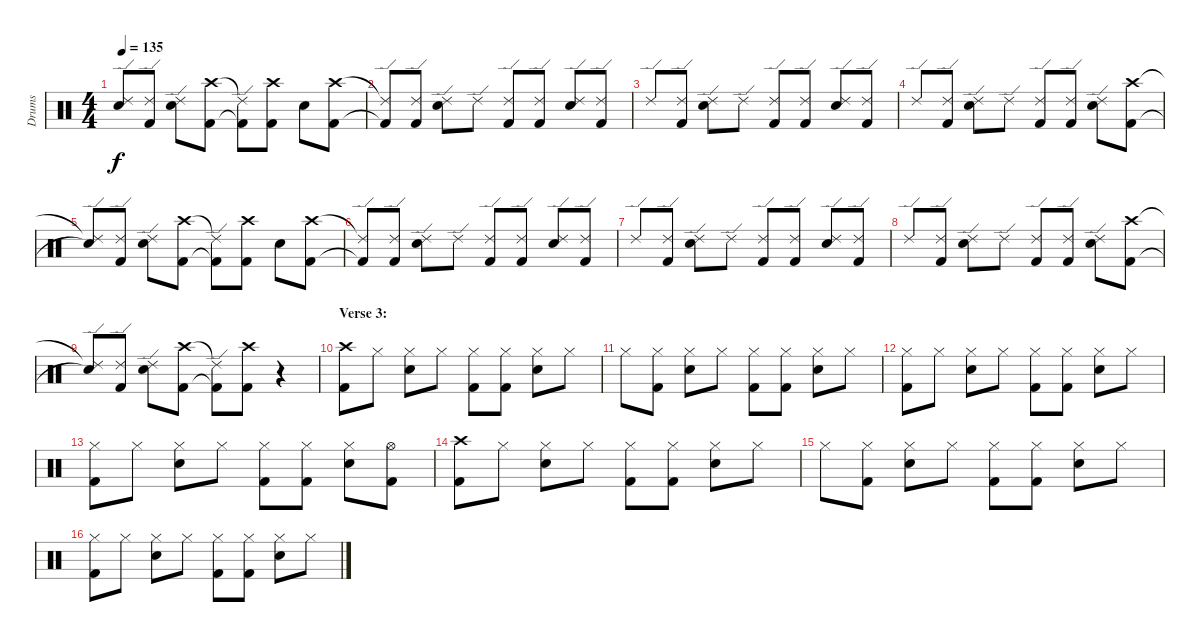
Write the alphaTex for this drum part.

\track ("Drums" "Drums") {instrument percussion}
\staff {score}
\articulation defaults
\ts (4 4)
\tempo 135
\clef neutral
\ks c
("Ride (edge) 2"{t} "Snare (hit)"{t}).8{dy f} ("Ride (edge) 2" "Kick (hit) 2").8 ("Ride (edge) 2" "Electric Snare (hit)").8 ("Crash high (hit)" "Kick (hit) 2").8 ("Ride (edge) 2"{t} "Kick (hit) 2"{t}).8 ("Crash high (hit)" "Kick (hit) 2").8 "Electric Snare (hit)".8 ("Crash high (hit)" "Kick (hit) 2").8 |
("Ride (edge) 2"{t} "Kick (hit) 2"{t}).8 ("Ride (edge) 2" "Kick (hit) 2").8 ("Ride (edge) 2" "Electric Snare (hit)").8 "Ride (edge) 2".8 ("Ride (edge) 2" "Kick (hit) 2").8 ("Ride (edge) 2" "Kick (hit) 2").8 ("Ride (edge) 2" "Electric Snare (hit)").8 ("Ride (edge) 2" "Kick (hit) 2").8 |
"Ride (edge) 2".8 ("Ride (edge) 2" "Kick (hit) 2").8 ("Ride (edge) 2" "Electric Snare (hit)").8 "Ride (edge) 2".8 ("Ride (edge) 2" "Kick (hit) 2").8 ("Ride (edge) 2" "Kick (hit) 2").8 ("Ride (edge) 2" "Electric Snare (hit)").8 ("Ride (edge) 2" "Kick (hit) 2").8 |
"Ride (edge) 2".8 ("Ride (edge) 2" "Kick (hit) 2").8 ("Ride (edge) 2" "Electric Snare (hit)").8 "Ride (edge) 2".8 ("Ride (edge) 2" "Kick (hit) 2").8 ("Ride (edge) 2" "Kick (hit) 2").8 ("Ride (edge) 2" "Electric Snare (hit)").8 ("Crash high (hit)" "Kick (hit) 2").8 |
("Ride (edge) 2"{t} "Snare (hit)"{t}).8 ("Ride (edge) 2" "Kick (hit) 2").8 ("Ride (edge) 2" "Electric Snare (hit)").8 ("Crash high (hit)" "Kick (hit) 2").8 ("Ride (edge) 2"{t} "Kick (hit) 2"{t}).8 ("Crash high (hit)" "Kick (hit) 2").8 "Electric Snare (hit)".8 ("Crash high (hit)" "Kick (hit) 2").8 |
("Ride (edge) 2"{t} "Kick (hit) 2"{t}).8 ("Ride (edge) 2" "Kick (hit) 2").8 ("Ride (edge) 2" "Electric Snare (hit)").8 "Ride (edge) 2".8 ("Ride (edge) 2" "Kick (hit) 2").8 ("Ride (edge) 2" "Kick (hit) 2").8 ("Ride (edge) 2" "Electric Snare (hit)").8 ("Ride (edge) 2" "Kick (hit) 2").8 |
"Ride (edge) 2".8 ("Ride (edge) 2" "Kick (hit) 2").8 ("Ride (edge) 2" "Electric Snare (hit)").8 "Ride (edge) 2".8 ("Ride (edge) 2" "Kick (hit) 2").8 ("Ride (edge) 2" "Kick (hit) 2").8 ("Ride (edge) 2" "Electric Snare (hit)").8 ("Ride (edge) 2" "Kick (hit) 2").8 |
"Ride (edge) 2".8 ("Ride (edge) 2" "Kick (hit) 2").8 ("Ride (edge) 2" "Electric Snare (hit)").8 "Ride (edge) 2".8 ("Ride (edge) 2" "Kick (hit) 2").8 ("Ride (edge) 2" "Kick (hit) 2").8 ("Ride (edge) 2" "Electric Snare (hit)").8 ("Crash high (hit)" "Kick (hit) 2").8 |
("Ride (edge) 2"{t} "Snare (hit)"{t}).8 ("Ride (edge) 2" "Kick (hit) 2").8 ("Ride (edge) 2" "Electric Snare (hit)").8 ("Crash high (hit)" "Kick (hit) 2").8 ("Ride (edge) 2"{t} "Kick (hit) 2"{t}).8 ("Crash high (hit)" "Kick (hit) 2").8 r.4 |
\section ("" "Verse 3:")
("Crash high (hit)" "Kick (hit) 2").8 "Hi-Hat (closed)".8 ("Hi-Hat (closed)" "Electric Snare (hit)").8 "Hi-Hat (closed)".8 ("Hi-Hat (closed)" "Kick (hit) 2").8 ("Hi-Hat (closed)" "Kick (hit) 2").8 ("Hi-Hat (closed)" "Electric Snare (hit)").8 "Hi-Hat (closed)".8 |
"Hi-Hat (closed)".8 ("Hi-Hat (closed)" "Kick (hit) 2").8 ("Hi-Hat (closed)" "Electric Snare (hit)").8 "Hi-Hat (closed)".8 ("Hi-Hat (closed)" "Kick (hit) 2").8 ("Hi-Hat (closed)" "Kick (hit) 2").8 ("Hi-Hat (closed)" "Electric Snare (hit)").8 "Hi-Hat (closed)".8 |
("Hi-Hat (closed)" "Kick (hit) 2").8 "Hi-Hat (closed)".8 ("Hi-Hat (closed)" "Electric Snare (hit)").8 "Hi-Hat (closed)".8 ("Hi-Hat (closed)" "Kick (hit) 2").8 ("Hi-Hat (closed)" "Kick (hit) 2").8 ("Hi-Hat (closed)" "Electric Snare (hit)").8 "Hi-Hat (closed)".8 |
("Hi-Hat (closed)" "Kick (hit) 2").8 "Hi-Hat (closed)".8 ("Hi-Hat (closed)" "Electric Snare (hit)").8 "Hi-Hat (closed)".8 ("Hi-Hat (closed)" "Kick (hit) 2").8 ("Hi-Hat (closed)" "Kick (hit) 2").8 ("Hi-Hat (closed)" "Electric Snare (hit)").8 ("Hi-Hat (open)" "Kick (hit) 2").8 |
("Crash high (hit)" "Kick (hit) 2").8 "Hi-Hat (closed)".8 ("Hi-Hat (closed)" "Electric Snare (hit)").8 "Hi-Hat (closed)".8 ("Hi-Hat (closed)" "Kick (hit) 2").8 ("Hi-Hat (closed)" "Kick (hit) 2").8 ("Hi-Hat (closed)" "Electric Snare (hit)").8 "Hi-Hat (closed)".8 |
"Hi-Hat (closed)".8 ("Hi-Hat (closed)" "Kick (hit) 2").8 ("Hi-Hat (closed)" "Electric Snare (hit)").8 "Hi-Hat (closed)".8 ("Hi-Hat (closed)" "Kick (hit) 2").8 ("Hi-Hat (closed)" "Kick (hit) 2").8 ("Hi-Hat (closed)" "Electric Snare (hit)").8 "Hi-Hat (closed)".8 |
("Hi-Hat (closed)" "Kick (hit) 2").8 "Hi-Hat (closed)".8 ("Hi-Hat (closed)" "Electric Snare (hit)").8 "Hi-Hat (closed)".8 ("Hi-Hat (closed)" "Kick (hit) 2").8 ("Hi-Hat (closed)" "Kick (hit) 2").8 ("Hi-Hat (closed)" "Electric Snare (hit)").8 "Hi-Hat (closed)".8
